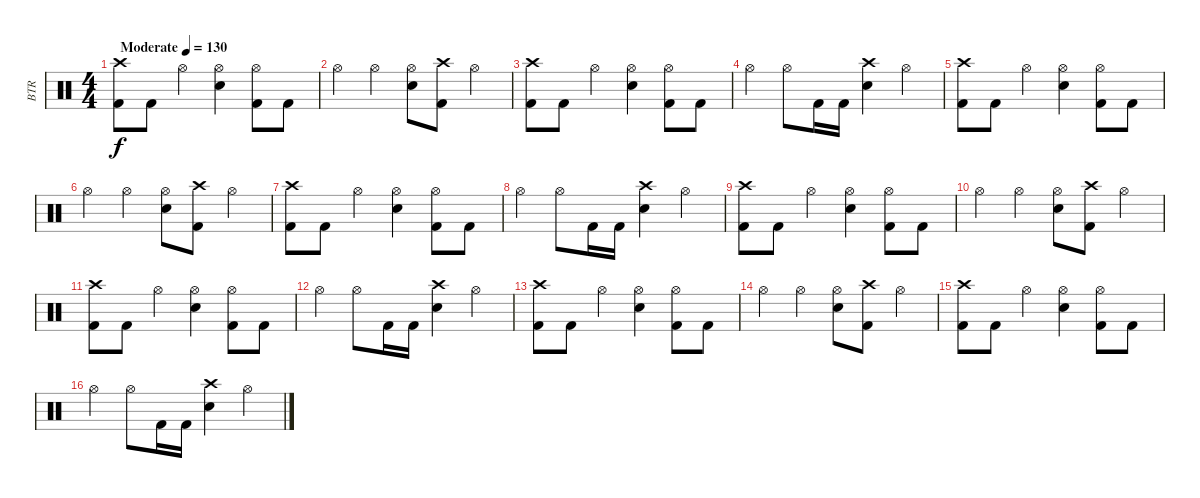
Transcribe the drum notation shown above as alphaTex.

\track ("BTR" "BTR") {instrument percussion}
\staff {score}
\articulation defaults
\ts (4 4)
\tempo (130 "Moderate")
\clef neutral
\ks c
("Crash high (hit)" "Kick (hit) 2").8{dy f} "Kick (hit) 2".8 "Hi-Hat (open)".4 ("Hi-Hat (open)" "Snare (hit) 2").4 ("Hi-Hat (open)" "Kick (hit) 2").8 "Kick (hit) 2".8 |
"Hi-Hat (open)".4 "Hi-Hat (open)".4 ("Hi-Hat (open)" "Snare (hit) 2").8 ("Crash high (hit)" "Kick (hit) 2").8 "Hi-Hat (open)".4 |
("Crash high (hit)" "Kick (hit) 2").8 "Kick (hit) 2".8 "Hi-Hat (open)".4 ("Hi-Hat (open)" "Snare (hit) 2").4 ("Hi-Hat (open)" "Kick (hit) 2").8 "Kick (hit) 2".8 |
"Hi-Hat (open)".4 "Hi-Hat (open)".8 "Kick (hit) 2".16 "Kick (hit) 2".16 ("Crash high (hit)" "Snare (hit) 2").4 "Hi-Hat (open)".4 |
("Crash high (hit)" "Kick (hit) 2").8 "Kick (hit) 2".8 "Hi-Hat (open)".4 ("Hi-Hat (open)" "Snare (hit) 2").4 ("Hi-Hat (open)" "Kick (hit) 2").8 "Kick (hit) 2".8 |
"Hi-Hat (open)".4 "Hi-Hat (open)".4 ("Hi-Hat (open)" "Snare (hit) 2").8 ("Crash high (hit)" "Kick (hit) 2").8 "Hi-Hat (open)".4 |
("Crash high (hit)" "Kick (hit) 2").8 "Kick (hit) 2".8 "Hi-Hat (open)".4 ("Hi-Hat (open)" "Snare (hit) 2").4 ("Hi-Hat (open)" "Kick (hit) 2").8 "Kick (hit) 2".8 |
"Hi-Hat (open)".4 "Hi-Hat (open)".8 "Kick (hit) 2".16 "Kick (hit) 2".16 ("Crash high (hit)" "Snare (hit) 2").4 "Hi-Hat (open)".4 |
("Crash high (hit)" "Kick (hit) 2").8 "Kick (hit) 2".8 "Hi-Hat (open)".4 ("Hi-Hat (open)" "Snare (hit) 2").4 ("Hi-Hat (open)" "Kick (hit) 2").8 "Kick (hit) 2".8 |
"Hi-Hat (open)".4 "Hi-Hat (open)".4 ("Hi-Hat (open)" "Snare (hit) 2").8 ("Crash high (hit)" "Kick (hit) 2").8 "Hi-Hat (open)".4 |
("Crash high (hit)" "Kick (hit) 2").8 "Kick (hit) 2".8 "Hi-Hat (open)".4 ("Hi-Hat (open)" "Snare (hit) 2").4 ("Hi-Hat (open)" "Kick (hit) 2").8 "Kick (hit) 2".8 |
"Hi-Hat (open)".4 "Hi-Hat (open)".8 "Kick (hit) 2".16 "Kick (hit) 2".16 ("Crash high (hit)" "Snare (hit) 2").4 "Hi-Hat (open)".4 |
("Crash high (hit)" "Kick (hit) 2").8 "Kick (hit) 2".8 "Hi-Hat (open)".4 ("Hi-Hat (open)" "Snare (hit) 2").4 ("Hi-Hat (open)" "Kick (hit) 2").8 "Kick (hit) 2".8 |
"Hi-Hat (open)".4 "Hi-Hat (open)".4 ("Hi-Hat (open)" "Snare (hit) 2").8 ("Crash high (hit)" "Kick (hit) 2").8 "Hi-Hat (open)".4 |
("Crash high (hit)" "Kick (hit) 2").8 "Kick (hit) 2".8 "Hi-Hat (open)".4 ("Hi-Hat (open)" "Snare (hit) 2").4 ("Hi-Hat (open)" "Kick (hit) 2").8 "Kick (hit) 2".8 |
"Hi-Hat (open)".4 "Hi-Hat (open)".8 "Kick (hit) 2".16 "Kick (hit) 2".16 ("Crash high (hit)" "Snare (hit) 2").4 "Hi-Hat (open)".4
